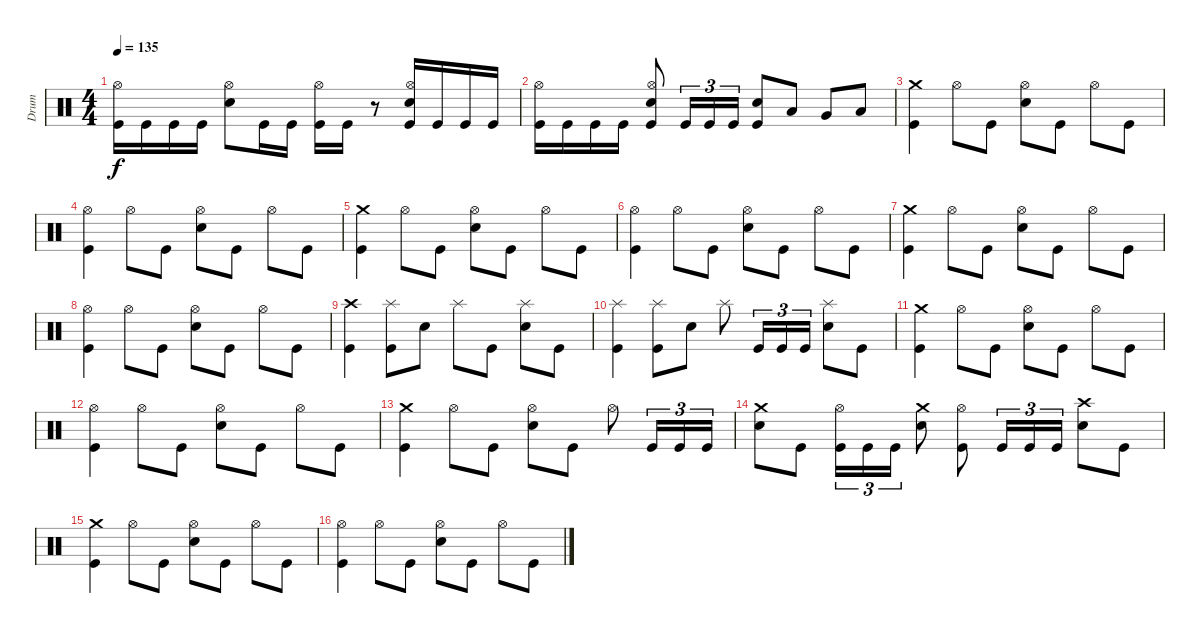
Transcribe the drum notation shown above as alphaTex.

\track ("Drum" "Drum") {instrument percussion}
\staff {score}
\articulation defaults
\ts (4 4)
\tempo 135
\clef neutral
\ks c
("Kick (hit)" "Hi-Hat (open)").16{dy f} "Kick (hit)".16 "Kick (hit)".16 "Kick (hit)".16 ("Electric Snare (hit)" "Hi-Hat (open)").8 "Kick (hit)".16 "Kick (hit)".16 ("Kick (hit)" "Hi-Hat (open)").16 "Kick (hit)".16 r.8 ("Kick (hit)" "Electric Snare (hit)" "Hi-Hat (open)").16 "Kick (hit)".16 "Kick (hit)".16 "Kick (hit)".16 |
("Kick (hit)" "Hi-Hat (open)").16 "Kick (hit)".16 "Kick (hit)".16 "Kick (hit)".16 ("Kick (hit)" "Electric Snare (hit)" "Hi-Hat (open)").8 "Kick (hit)".16{tu (3 2)} "Kick (hit)".16{tu (3 2)} "Kick (hit)".16{tu (3 2)} ("Kick (hit)" "Electric Snare (hit)").8 "Low Tom (hit)".8 "Very Low Tom (hit)".8 "Low Floor Tom (hit)".8 |
("Kick (hit)" "Crash medium (hit)").4 "Hi-Hat (open)".8 "Kick (hit)".8 ("Electric Snare (hit)" "Hi-Hat (open)").8 "Kick (hit)".8 "Hi-Hat (open)".8 "Kick (hit)".8 |
("Kick (hit)" "Hi-Hat (open)").4 "Hi-Hat (open)".8 "Kick (hit)".8 ("Electric Snare (hit)" "Hi-Hat (open)").8 "Kick (hit)".8 "Hi-Hat (open)".8 "Kick (hit)".8 |
("Kick (hit)" "Crash medium (hit)").4 "Hi-Hat (open)".8 "Kick (hit)".8 ("Electric Snare (hit)" "Hi-Hat (open)").8 "Kick (hit)".8 "Hi-Hat (open)".8 "Kick (hit)".8 |
("Kick (hit)" "Hi-Hat (open)").4 "Hi-Hat (open)".8 "Kick (hit)".8 ("Electric Snare (hit)" "Hi-Hat (open)").8 "Kick (hit)".8 "Hi-Hat (open)".8 "Kick (hit)".8 |
("Kick (hit)" "Crash medium (hit)").4 "Hi-Hat (open)".8 "Kick (hit)".8 ("Electric Snare (hit)" "Hi-Hat (open)").8 "Kick (hit)".8 "Hi-Hat (open)".8 "Kick (hit)".8 |
("Kick (hit)" "Hi-Hat (open)").4 "Hi-Hat (open)".8 "Kick (hit)".8 ("Electric Snare (hit)" "Hi-Hat (open)").8 "Kick (hit)".8 "Hi-Hat (open)".8 "Kick (hit)".8 |
("Kick (hit)" "Crash high (hit)").4 ("Kick (hit)" "Splash (hit)").8 "Electric Snare (hit)".8 "Splash (hit)".8 "Kick (hit)".8 ("Electric Snare (hit)" "Splash (hit)").8 "Kick (hit)".8 |
("Kick (hit)" "Splash (hit)").4 ("Kick (hit)" "Splash (hit)").8 "Electric Snare (hit)".8 "Splash (hit)".8 "Kick (hit)".16{tu (3 2)} "Kick (hit)".16{tu (3 2)} "Kick (hit)".16{tu (3 2)} ("Electric Snare (hit)" "Splash (hit)").8 "Kick (hit)".8 |
("Kick (hit)" "Crash medium (hit)").4 "Hi-Hat (open)".8 "Kick (hit)".8 ("Electric Snare (hit)" "Hi-Hat (open)").8 "Kick (hit)".8 "Hi-Hat (open)".8 "Kick (hit)".8 |
("Kick (hit)" "Hi-Hat (open)").4 "Hi-Hat (open)".8 "Kick (hit)".8 ("Electric Snare (hit)" "Hi-Hat (open)").8 "Kick (hit)".8 "Hi-Hat (open)".8 "Kick (hit)".8 |
("Kick (hit)" "Crash medium (hit)").4 "Hi-Hat (open)".8 "Kick (hit)".8 ("Electric Snare (hit)" "Hi-Hat (open)").8 "Kick (hit)".8 "Hi-Hat (open)".8 "Kick (hit)".16{tu (3 2)} "Kick (hit)".16{tu (3 2)} "Kick (hit)".16{tu (3 2)} |
("Electric Snare (hit)" "Crash medium (hit)").8 "Kick (hit)".8 ("Kick (hit)" "Hi-Hat (open)").16{tu (3 2)} "Kick (hit)".16{tu (3 2)} "Kick (hit)".16{tu (3 2)} ("Electric Snare (hit)" "Crash medium (hit)").8 ("Kick (hit)" "Hi-Hat (open)").8 "Kick (hit)".16{tu (3 2)} "Kick (hit)".16{tu (3 2)} "Kick (hit)".16{tu (3 2)} ("Electric Snare (hit)" "Crash high (hit)").8 "Kick (hit)".8 |
("Kick (hit)" "Crash medium (hit)").4 "Hi-Hat (open)".8 "Kick (hit)".8 ("Electric Snare (hit)" "Hi-Hat (open)").8 "Kick (hit)".8 "Hi-Hat (open)".8 "Kick (hit)".8 |
("Kick (hit)" "Hi-Hat (open)").4 "Hi-Hat (open)".8 "Kick (hit)".8 ("Electric Snare (hit)" "Hi-Hat (open)").8 "Kick (hit)".8 "Hi-Hat (open)".8 "Kick (hit)".8
